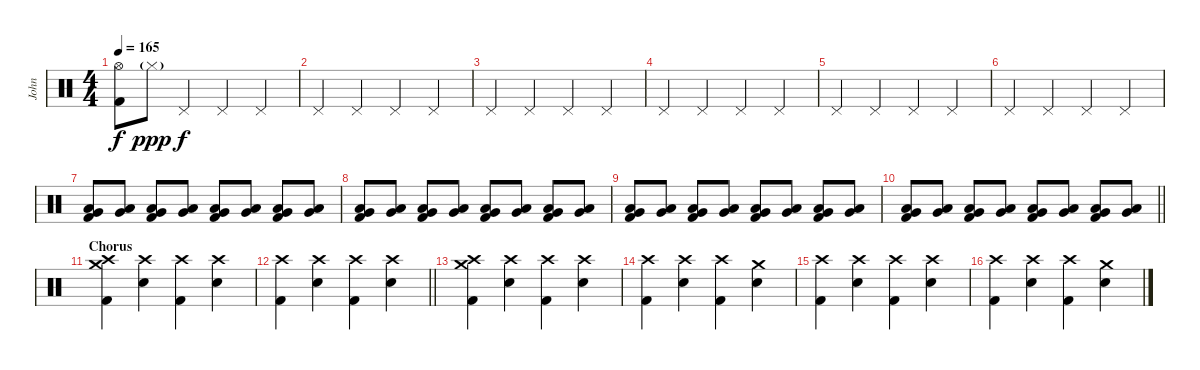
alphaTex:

\track ("John" "John") {instrument percussion}
\staff {score}
\articulation defaults
\ts (4 4)
\tempo 165
\clef neutral
\ks c
("Hi-Hat (open)" "Kick (hit) 2").8{dy f} "Hi-Hat (closed)"{g}.8{dy ppp} "Pedal Hi-Hat (hit)".4{dy f volume 4} "Pedal Hi-Hat (hit)".4 "Pedal Hi-Hat (hit)".4 |
"Pedal Hi-Hat (hit)".4 "Pedal Hi-Hat (hit)".4 "Pedal Hi-Hat (hit)".4 "Pedal Hi-Hat (hit)".4 |
"Pedal Hi-Hat (hit)".4 "Pedal Hi-Hat (hit)".4 "Pedal Hi-Hat (hit)".4 "Pedal Hi-Hat (hit)".4 |
"Pedal Hi-Hat (hit)".4 "Pedal Hi-Hat (hit)".4 "Pedal Hi-Hat (hit)".4 "Pedal Hi-Hat (hit)".4 |
"Pedal Hi-Hat (hit)".4 "Pedal Hi-Hat (hit)".4 "Pedal Hi-Hat (hit)".4 "Pedal Hi-Hat (hit)".4 |
"Pedal Hi-Hat (hit)".4 "Pedal Hi-Hat (hit)".4 "Pedal Hi-Hat (hit)".4 "Pedal Hi-Hat (hit)".4 |
("Low Tom (hit)" "Very Low Tom (hit)" "Kick (hit) 2").8{volume 13} ("Low Tom (hit)" "Very Low Tom (hit)").8 ("Low Tom (hit)" "Very Low Tom (hit)" "Kick (hit) 2").8 ("Low Tom (hit)" "Very Low Tom (hit)").8 ("Low Tom (hit)" "Very Low Tom (hit)" "Kick (hit) 2").8 ("Low Tom (hit)" "Very Low Tom (hit)").8 ("Low Tom (hit)" "Very Low Tom (hit)" "Kick (hit) 2").8 ("Low Tom (hit)" "Very Low Tom (hit)").8 |
("Low Tom (hit)" "Very Low Tom (hit)" "Kick (hit) 2").8 ("Low Tom (hit)" "Very Low Tom (hit)").8 ("Low Tom (hit)" "Very Low Tom (hit)" "Kick (hit) 2").8 ("Low Tom (hit)" "Very Low Tom (hit)").8 ("Low Tom (hit)" "Very Low Tom (hit)" "Kick (hit) 2").8 ("Low Tom (hit)" "Very Low Tom (hit)").8 ("Low Tom (hit)" "Very Low Tom (hit)" "Kick (hit) 2").8 ("Low Tom (hit)" "Very Low Tom (hit)").8 |
("Low Tom (hit)" "Very Low Tom (hit)" "Kick (hit) 2").8 ("Low Tom (hit)" "Very Low Tom (hit)").8 ("Low Tom (hit)" "Very Low Tom (hit)" "Kick (hit) 2").8 ("Low Tom (hit)" "Very Low Tom (hit)").8 ("Low Tom (hit)" "Very Low Tom (hit)" "Kick (hit) 2").8 ("Low Tom (hit)" "Very Low Tom (hit)").8 ("Low Tom (hit)" "Very Low Tom (hit)" "Kick (hit) 2").8 ("Low Tom (hit)" "Very Low Tom (hit)").8 |
\barLineRight lightlight
("Low Tom (hit)" "Very Low Tom (hit)" "Kick (hit) 2").8 ("Low Tom (hit)" "Very Low Tom (hit)").8 ("Low Tom (hit)" "Very Low Tom (hit)" "Kick (hit) 2").8 ("Low Tom (hit)" "Very Low Tom (hit)").8 ("Low Tom (hit)" "Very Low Tom (hit)" "Kick (hit) 2").8 ("Low Tom (hit)" "Very Low Tom (hit)").8 ("Low Tom (hit)" "Very Low Tom (hit)" "Kick (hit) 2").8 ("Low Tom (hit)" "Very Low Tom (hit)").8 |
\section ("" "Chorus")
("Crash medium (hit)" "Crash high (hit)" "Kick (hit) 2").4 ("Crash high (hit)" "Electric Snare (hit)").4 ("Crash high (hit)" "Kick (hit) 2").4 ("Crash high (hit)" "Electric Snare (hit)").4 |
\barLineRight lightlight
("Crash high (hit)" "Kick (hit) 2").4 ("Crash high (hit)" "Electric Snare (hit)").4 ("Crash high (hit)" "Kick (hit) 2").4 ("Crash high (hit)" "Electric Snare (hit)").4 |
("Crash medium (hit)" "Crash high (hit)" "Kick (hit) 2").4 ("Crash high (hit)" "Electric Snare (hit)").4 ("Crash high (hit)" "Kick (hit) 2").4 ("Crash high (hit)" "Electric Snare (hit)").4 |
("Crash high (hit)" "Kick (hit) 2").4 ("Crash high (hit)" "Electric Snare (hit)").4 ("Crash high (hit)" "Kick (hit) 2").4 ("Crash medium (hit)" "Electric Snare (hit)").4 |
("Crash high (hit)" "Kick (hit) 2").4 ("Crash high (hit)" "Electric Snare (hit)").4 ("Crash high (hit)" "Kick (hit) 2").4 ("Crash high (hit)" "Electric Snare (hit)").4 |
("Crash high (hit)" "Kick (hit) 2").4 ("Crash high (hit)" "Electric Snare (hit)").4 ("Crash high (hit)" "Kick (hit) 2").4 ("Crash medium (hit)" "Electric Snare (hit)").4
